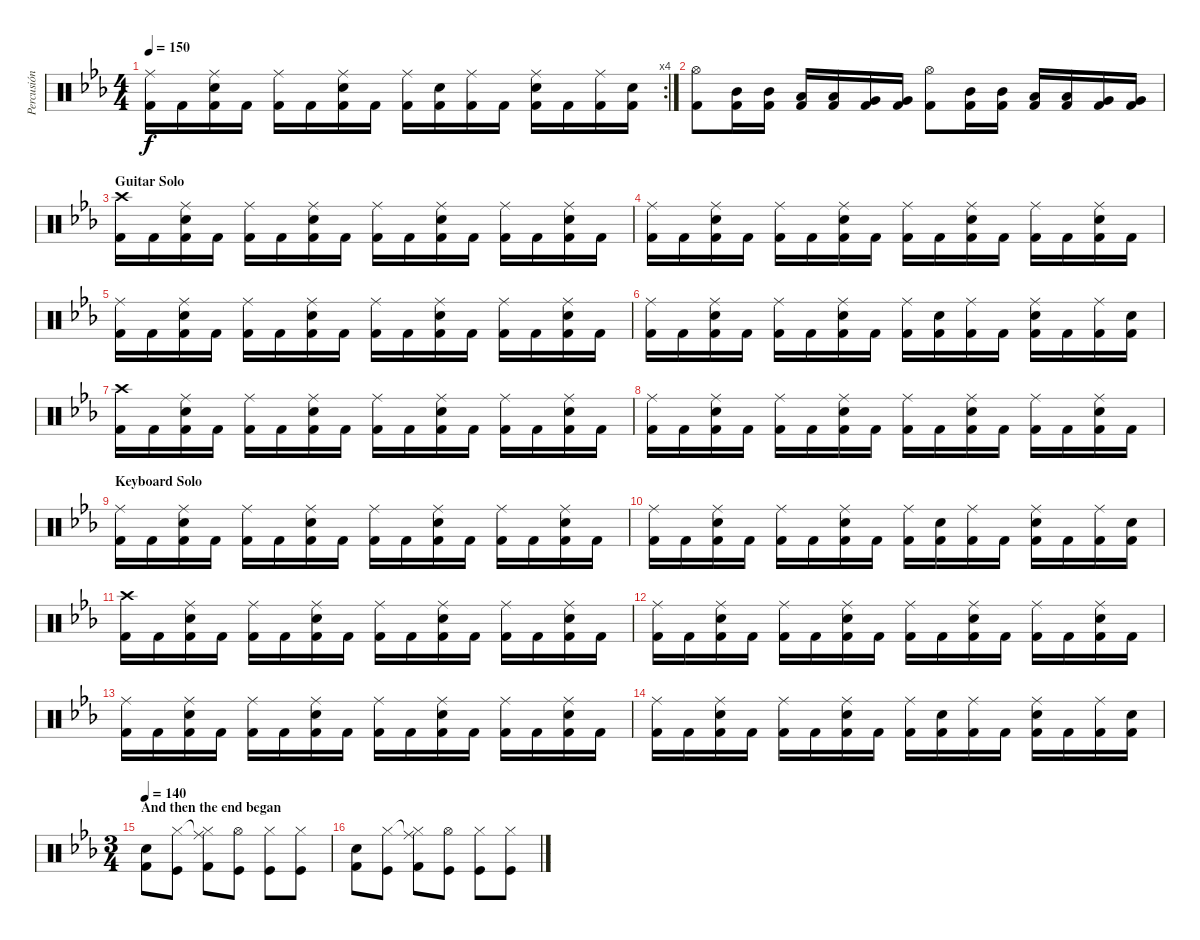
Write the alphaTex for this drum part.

\track ("Percusión" "Percusión") {instrument percussion}
\staff {score}
\articulation defaults
\rc 4
\ts (4 4)
\tempo 150
\clef neutral
\ks cminor
("Ride (middle)" "Kick (hit) 2").16{dy f} "Kick (hit) 2".16 ("Ride (middle)" "Electric Snare (hit)" "Kick (hit) 2").16 "Kick (hit) 2".16 ("Ride (middle)" "Kick (hit) 2").16 "Kick (hit) 2".16 ("Ride (middle)" "Electric Snare (hit)" "Kick (hit) 2").16 "Kick (hit) 2".16 ("Ride (middle)" "Kick (hit) 2").16 ("Electric Snare (hit)" "Kick (hit) 2").16 ("Ride (middle)" "Kick (hit) 2").16 "Kick (hit) 2".16 ("Ride (middle)" "Electric Snare (hit)" "Kick (hit) 2").16 "Kick (hit) 2".16 ("Ride (middle)" "Kick (hit) 2").16 ("Electric Snare (hit)" "Kick (hit) 2").16 |
("Hi-Hat (open)" "Kick (hit) 2").8 ("Mid Tom (hit)" "Kick (hit) 2").16 ("Mid Tom (hit)" "Kick (hit) 2").16 ("Low Tom (hit)" "Kick (hit) 2").16 ("Low Tom (hit)" "Kick (hit) 2").16 ("Very Low Tom (hit)" "Kick (hit) 2").16 ("Very Low Tom (hit)" "Kick (hit) 2").16 ("Hi-Hat (open)" "Kick (hit) 2").8 ("Mid Tom (hit)" "Kick (hit) 2").16 ("Mid Tom (hit)" "Kick (hit) 2").16 ("Low Tom (hit)" "Kick (hit) 2").16 ("Low Tom (hit)" "Kick (hit) 2").16 ("Very Low Tom (hit)" "Kick (hit) 2").16 ("Very Low Tom (hit)" "Kick (hit) 2").16 |
\section ("" "Guitar Solo")
("Crash high (hit)" "Kick (hit) 2").16 "Kick (hit) 2".16 ("Ride (middle)" "Electric Snare (hit)" "Kick (hit) 2").16 "Kick (hit) 2".16 ("Ride (middle)" "Kick (hit) 2").16 "Kick (hit) 2".16 ("Ride (middle)" "Electric Snare (hit)" "Kick (hit) 2").16 "Kick (hit) 2".16 ("Ride (middle)" "Kick (hit) 2").16 "Kick (hit) 2".16 ("Ride (middle)" "Electric Snare (hit)" "Kick (hit) 2").16 "Kick (hit) 2".16 ("Ride (middle)" "Kick (hit) 2").16 "Kick (hit) 2".16 ("Ride (middle)" "Electric Snare (hit)" "Kick (hit) 2").16 "Kick (hit) 2".16 |
("Ride (middle)" "Kick (hit) 2").16 "Kick (hit) 2".16 ("Ride (middle)" "Electric Snare (hit)" "Kick (hit) 2").16 "Kick (hit) 2".16 ("Ride (middle)" "Kick (hit) 2").16 "Kick (hit) 2".16 ("Ride (middle)" "Electric Snare (hit)" "Kick (hit) 2").16 "Kick (hit) 2".16 ("Ride (middle)" "Kick (hit) 2").16 "Kick (hit) 2".16 ("Ride (middle)" "Electric Snare (hit)" "Kick (hit) 2").16 "Kick (hit) 2".16 ("Ride (middle)" "Kick (hit) 2").16 "Kick (hit) 2".16 ("Ride (middle)" "Electric Snare (hit)" "Kick (hit) 2").16 "Kick (hit) 2".16 |
("Ride (middle)" "Kick (hit) 2").16 "Kick (hit) 2".16 ("Ride (middle)" "Electric Snare (hit)" "Kick (hit) 2").16 "Kick (hit) 2".16 ("Ride (middle)" "Kick (hit) 2").16 "Kick (hit) 2".16 ("Ride (middle)" "Electric Snare (hit)" "Kick (hit) 2").16 "Kick (hit) 2".16 ("Ride (middle)" "Kick (hit) 2").16 "Kick (hit) 2".16 ("Ride (middle)" "Electric Snare (hit)" "Kick (hit) 2").16 "Kick (hit) 2".16 ("Ride (middle)" "Kick (hit) 2").16 "Kick (hit) 2".16 ("Ride (middle)" "Electric Snare (hit)" "Kick (hit) 2").16 "Kick (hit) 2".16 |
("Ride (middle)" "Kick (hit) 2").16 "Kick (hit) 2".16 ("Ride (middle)" "Electric Snare (hit)" "Kick (hit) 2").16 "Kick (hit) 2".16 ("Ride (middle)" "Kick (hit) 2").16 "Kick (hit) 2".16 ("Ride (middle)" "Electric Snare (hit)" "Kick (hit) 2").16 "Kick (hit) 2".16 ("Ride (middle)" "Kick (hit) 2").16 ("Electric Snare (hit)" "Kick (hit) 2").16 ("Ride (middle)" "Kick (hit) 2").16 "Kick (hit) 2".16 ("Ride (middle)" "Electric Snare (hit)" "Kick (hit) 2").16 "Kick (hit) 2".16 ("Ride (middle)" "Kick (hit) 2").16 ("Electric Snare (hit)" "Kick (hit) 2").16 |
("Crash high (hit)" "Kick (hit) 2").16 "Kick (hit) 2".16 ("Ride (middle)" "Electric Snare (hit)" "Kick (hit) 2").16 "Kick (hit) 2".16 ("Ride (middle)" "Kick (hit) 2").16 "Kick (hit) 2".16 ("Ride (middle)" "Electric Snare (hit)" "Kick (hit) 2").16 "Kick (hit) 2".16 ("Ride (middle)" "Kick (hit) 2").16 "Kick (hit) 2".16 ("Ride (middle)" "Electric Snare (hit)" "Kick (hit) 2").16 "Kick (hit) 2".16 ("Ride (middle)" "Kick (hit) 2").16 "Kick (hit) 2".16 ("Ride (middle)" "Electric Snare (hit)" "Kick (hit) 2").16 "Kick (hit) 2".16 |
("Ride (middle)" "Kick (hit) 2").16 "Kick (hit) 2".16 ("Ride (middle)" "Electric Snare (hit)" "Kick (hit) 2").16 "Kick (hit) 2".16 ("Ride (middle)" "Kick (hit) 2").16 "Kick (hit) 2".16 ("Ride (middle)" "Electric Snare (hit)" "Kick (hit) 2").16 "Kick (hit) 2".16 ("Ride (middle)" "Kick (hit) 2").16 "Kick (hit) 2".16 ("Ride (middle)" "Electric Snare (hit)" "Kick (hit) 2").16 "Kick (hit) 2".16 ("Ride (middle)" "Kick (hit) 2").16 "Kick (hit) 2".16 ("Ride (middle)" "Electric Snare (hit)" "Kick (hit) 2").16 "Kick (hit) 2".16 |
\section ("" "Keyboard Solo")
("Ride (middle)" "Kick (hit) 2").16 "Kick (hit) 2".16 ("Ride (middle)" "Electric Snare (hit)" "Kick (hit) 2").16 "Kick (hit) 2".16 ("Ride (middle)" "Kick (hit) 2").16 "Kick (hit) 2".16 ("Ride (middle)" "Electric Snare (hit)" "Kick (hit) 2").16 "Kick (hit) 2".16 ("Ride (middle)" "Kick (hit) 2").16 "Kick (hit) 2".16 ("Ride (middle)" "Electric Snare (hit)" "Kick (hit) 2").16 "Kick (hit) 2".16 ("Ride (middle)" "Kick (hit) 2").16 "Kick (hit) 2".16 ("Ride (middle)" "Electric Snare (hit)" "Kick (hit) 2").16 "Kick (hit) 2".16 |
("Ride (middle)" "Kick (hit) 2").16 "Kick (hit) 2".16 ("Ride (middle)" "Electric Snare (hit)" "Kick (hit) 2").16 "Kick (hit) 2".16 ("Ride (middle)" "Kick (hit) 2").16 "Kick (hit) 2".16 ("Ride (middle)" "Electric Snare (hit)" "Kick (hit) 2").16 "Kick (hit) 2".16 ("Ride (middle)" "Kick (hit) 2").16 ("Electric Snare (hit)" "Kick (hit) 2").16 ("Ride (middle)" "Kick (hit) 2").16 "Kick (hit) 2".16 ("Ride (middle)" "Electric Snare (hit)" "Kick (hit) 2").16 "Kick (hit) 2".16 ("Ride (middle)" "Kick (hit) 2").16 ("Electric Snare (hit)" "Kick (hit) 2").16 |
("Crash high (hit)" "Kick (hit) 2").16 "Kick (hit) 2".16 ("Ride (middle)" "Electric Snare (hit)" "Kick (hit) 2").16 "Kick (hit) 2".16 ("Ride (middle)" "Kick (hit) 2").16 "Kick (hit) 2".16 ("Ride (middle)" "Electric Snare (hit)" "Kick (hit) 2").16 "Kick (hit) 2".16 ("Ride (middle)" "Kick (hit) 2").16 "Kick (hit) 2".16 ("Ride (middle)" "Electric Snare (hit)" "Kick (hit) 2").16 "Kick (hit) 2".16 ("Ride (middle)" "Kick (hit) 2").16 "Kick (hit) 2".16 ("Ride (middle)" "Electric Snare (hit)" "Kick (hit) 2").16 "Kick (hit) 2".16 |
("Ride (middle)" "Kick (hit) 2").16 "Kick (hit) 2".16 ("Ride (middle)" "Electric Snare (hit)" "Kick (hit) 2").16 "Kick (hit) 2".16 ("Ride (middle)" "Kick (hit) 2").16 "Kick (hit) 2".16 ("Ride (middle)" "Electric Snare (hit)" "Kick (hit) 2").16 "Kick (hit) 2".16 ("Ride (middle)" "Kick (hit) 2").16 "Kick (hit) 2".16 ("Ride (middle)" "Electric Snare (hit)" "Kick (hit) 2").16 "Kick (hit) 2".16 ("Ride (middle)" "Kick (hit) 2").16 "Kick (hit) 2".16 ("Ride (middle)" "Electric Snare (hit)" "Kick (hit) 2").16 "Kick (hit) 2".16 |
("Ride (middle)" "Kick (hit) 2").16 "Kick (hit) 2".16 ("Ride (middle)" "Electric Snare (hit)" "Kick (hit) 2").16 "Kick (hit) 2".16 ("Ride (middle)" "Kick (hit) 2").16 "Kick (hit) 2".16 ("Ride (middle)" "Electric Snare (hit)" "Kick (hit) 2").16 "Kick (hit) 2".16 ("Ride (middle)" "Kick (hit) 2").16 "Kick (hit) 2".16 ("Ride (middle)" "Electric Snare (hit)" "Kick (hit) 2").16 "Kick (hit) 2".16 ("Ride (middle)" "Kick (hit) 2").16 "Kick (hit) 2".16 ("Ride (middle)" "Electric Snare (hit)" "Kick (hit) 2").16 "Kick (hit) 2".16 |
("Ride (middle)" "Kick (hit) 2").16 "Kick (hit) 2".16 ("Ride (middle)" "Electric Snare (hit)" "Kick (hit) 2").16 "Kick (hit) 2".16 ("Ride (middle)" "Kick (hit) 2").16 "Kick (hit) 2".16 ("Ride (middle)" "Electric Snare (hit)" "Kick (hit) 2").16 "Kick (hit) 2".16 ("Ride (middle)" "Kick (hit) 2").16 ("Electric Snare (hit)" "Kick (hit) 2").16 ("Ride (middle)" "Kick (hit) 2").16 "Kick (hit) 2".16 ("Ride (middle)" "Electric Snare (hit)" "Kick (hit) 2").16 "Kick (hit) 2".16 ("Ride (middle)" "Kick (hit) 2").16 ("Electric Snare (hit)" "Kick (hit) 2").16 |
\ts (3 4)
\section ("" "And then the end began")
\tempo 140
("Electric Snare (hit)" "Kick (hit) 2").8{volume 5} ("Hi-Hat (closed)" "Kick (hit)").8 ("Ride (middle)"{t} "Hi-Hat (closed)" "Kick (hit) 2").8 ("Hi-Hat (open)" "Kick (hit)").8 ("Hi-Hat (closed)" "Kick (hit)").8 ("Hi-Hat (closed)" "Kick (hit)").8 |
("Electric Snare (hit)" "Kick (hit) 2").8 ("Hi-Hat (closed)" "Kick (hit)").8 ("Ride (middle)"{t} "Hi-Hat (closed)" "Kick (hit) 2").8 ("Hi-Hat (open)" "Kick (hit)").8 ("Hi-Hat (closed)" "Kick (hit)").8 ("Hi-Hat (closed)" "Kick (hit)").8
